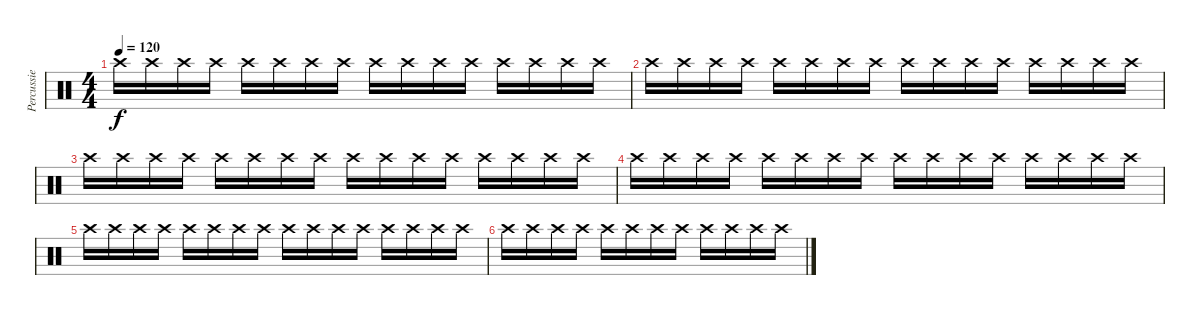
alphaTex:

\track ("Percussie" "Percussie") {instrument percussion}
\staff {score}
\articulation defaults
\ts (4 4)
\tempo 120
\clef neutral
\ks c "Crash high (hit)".16{dy f} "Crash high (hit)".16 "Crash high (hit)".16 "Crash high (hit)".16 "Crash high (hit)".16 "Crash high (hit)".16 "Crash high (hit)".16 "Crash high (hit)".16 "Crash high (hit)".16 "Crash high (hit)".16 "Crash high (hit)".16 "Crash high (hit)".16 "Crash high (hit)".16 "Crash high (hit)".16 "Crash high (hit)".16 "Crash high (hit)".16
|
"Crash high (hit)".16 "Crash high (hit)".16 "Crash high (hit)".16 "Crash high (hit)".16 "Crash high (hit)".16 "Crash high (hit)".16 "Crash high (hit)".16 "Crash high (hit)".16 "Crash high (hit)".16 "Crash high (hit)".16 "Crash high (hit)".16 "Crash high (hit)".16 "Crash high (hit)".16 "Crash high (hit)".16 "Crash high (hit)".16 "Crash high (hit)".16 |
"Crash high (hit)".16 "Crash high (hit)".16 "Crash high (hit)".16 "Crash high (hit)".16 "Crash high (hit)".16 "Crash high (hit)".16 "Crash high (hit)".16 "Crash high (hit)".16 "Crash high (hit)".16 "Crash high (hit)".16 "Crash high (hit)".16 "Crash high (hit)".16 "Crash high (hit)".16 "Crash high (hit)".16 "Crash high (hit)".16 "Crash high (hit)".16 |
"Crash high (hit)".16 "Crash high (hit)".16 "Crash high (hit)".16 "Crash high (hit)".16 "Crash high (hit)".16 "Crash high (hit)".16 "Crash high (hit)".16 "Crash high (hit)".16 "Crash high (hit)".16 "Crash high (hit)".16 "Crash high (hit)".16 "Crash high (hit)".16 "Crash high (hit)".16 "Crash high (hit)".16 "Crash high (hit)".16 "Crash high (hit)".16 |
"Crash high (hit)".16 "Crash high (hit)".16 "Crash high (hit)".16 "Crash high (hit)".16 "Crash high (hit)".16 "Crash high (hit)".16 "Crash high (hit)".16 "Crash high (hit)".16 "Crash high (hit)".16 "Crash high (hit)".16 "Crash high (hit)".16 "Crash high (hit)".16 "Crash high (hit)".16 "Crash high (hit)".16 "Crash high (hit)".16 "Crash high (hit)".16 |
"Crash high (hit)".16 "Crash high (hit)".16 "Crash high (hit)".16 "Crash high (hit)".16 "Crash high (hit)".16 "Crash high (hit)".16 "Crash high (hit)".16 "Crash high (hit)".16 "Crash high (hit)".16 "Crash high (hit)".16 "Crash high (hit)".16 "Crash high (hit)".16
